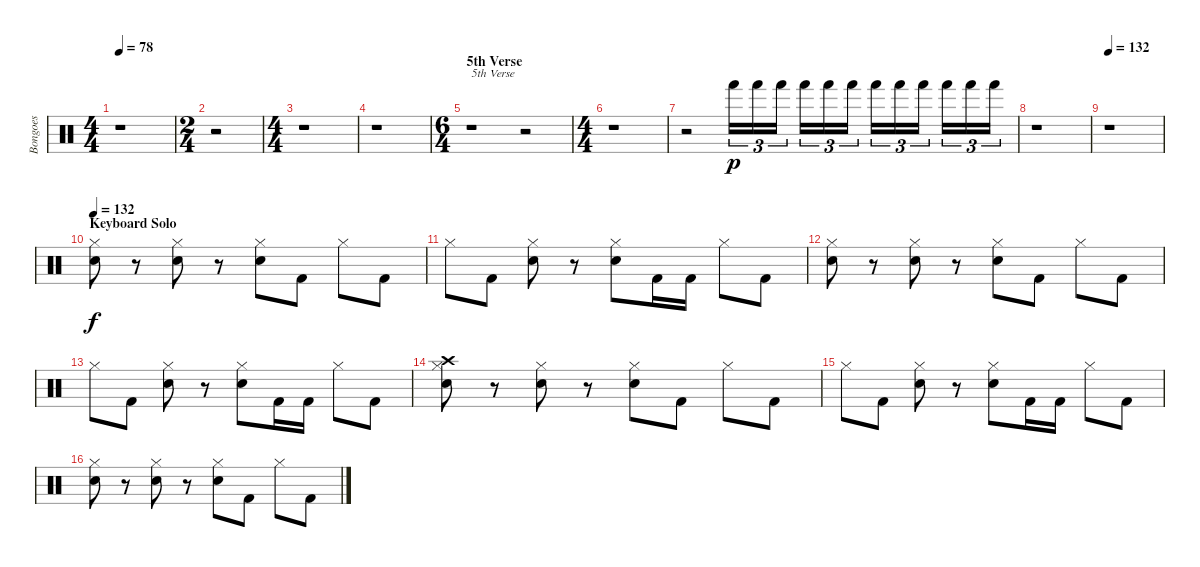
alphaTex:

\track ("Bongoes" "Bongoes") {instrument percussion}
\staff {score}
\articulation defaults
\ts (4 4)
\tempo 78
\clef neutral
\ks c
r.1{dy f} |
\ts (2 4)
r.2 |
\ts (4 4)
r.1 |
r.1 |
\ts (6 4)
\section ("" "5th Verse")
r.1{txt "5th Verse"} r.2 |
\ts (4 4)
r.1 |
r.2 "Hand (hit)".16{tu (3 2) dy p} "Hand (hit)".16{tu (3 2)} "Hand (hit)".16{tu (3 2)} "Hand (hit)".16{tu (3 2)} "Hand (hit)".16{tu (3 2)} "Hand (hit)".16{tu (3 2)} "Hand (hit)".16{tu (3 2)} "Hand (hit)".16{tu (3 2)} "Hand (hit)".16{tu (3 2)} "Hand (hit)".16{tu (3 2)} "Hand (hit)".16{tu (3 2)} "Hand (hit)".16{tu (3 2)} |
r.1 |
\tempo 132
r.1 |
\section ("" "Keyboard Solo")
\tempo 132
("Hi-Hat (closed)" "Snare (hit) 2").8{dy f} r.8 ("Hi-Hat (closed)" "Snare (hit) 2").8 r.8 ("Hi-Hat (closed)" "Snare (hit) 2").8 "Kick (hit) 2".8 "Hi-Hat (closed)".8 "Kick (hit) 2".8 |
"Hi-Hat (closed)".8 "Kick (hit) 2".8 ("Hi-Hat (closed)" "Snare (hit) 2").8 r.8 ("Hi-Hat (closed)" "Snare (hit) 2").8 "Kick (hit) 2".16 "Kick (hit) 2".16 "Hi-Hat (closed)".8 "Kick (hit) 2".8 |
("Hi-Hat (closed)" "Snare (hit) 2").8 r.8 ("Hi-Hat (closed)" "Snare (hit) 2").8 r.8 ("Hi-Hat (closed)" "Snare (hit) 2").8 "Kick (hit) 2".8 "Hi-Hat (closed)".8 "Kick (hit) 2".8 |
"Hi-Hat (closed)".8 "Kick (hit) 2".8 ("Hi-Hat (closed)" "Snare (hit) 2").8 r.8 ("Hi-Hat (closed)" "Snare (hit) 2").8 "Kick (hit) 2".16 "Kick (hit) 2".16 "Hi-Hat (closed)".8 "Kick (hit) 2".8 |
("Hi-Hat (closed)" "Snare (hit) 2" "Crash high (hit)").8 r.8 ("Hi-Hat (closed)" "Snare (hit) 2").8 r.8 ("Hi-Hat (closed)" "Snare (hit) 2").8 "Kick (hit) 2".8 "Hi-Hat (closed)".8 "Kick (hit) 2".8 |
"Hi-Hat (closed)".8 "Kick (hit) 2".8 ("Hi-Hat (closed)" "Snare (hit) 2").8 r.8 ("Hi-Hat (closed)" "Snare (hit) 2").8 "Kick (hit) 2".16 "Kick (hit) 2".16 "Hi-Hat (closed)".8 "Kick (hit) 2".8 |
("Hi-Hat (closed)" "Snare (hit) 2").8 r.8 ("Hi-Hat (closed)" "Snare (hit) 2").8 r.8 ("Hi-Hat (closed)" "Snare (hit) 2").8 "Kick (hit) 2".8 "Hi-Hat (closed)".8 "Kick (hit) 2".8
